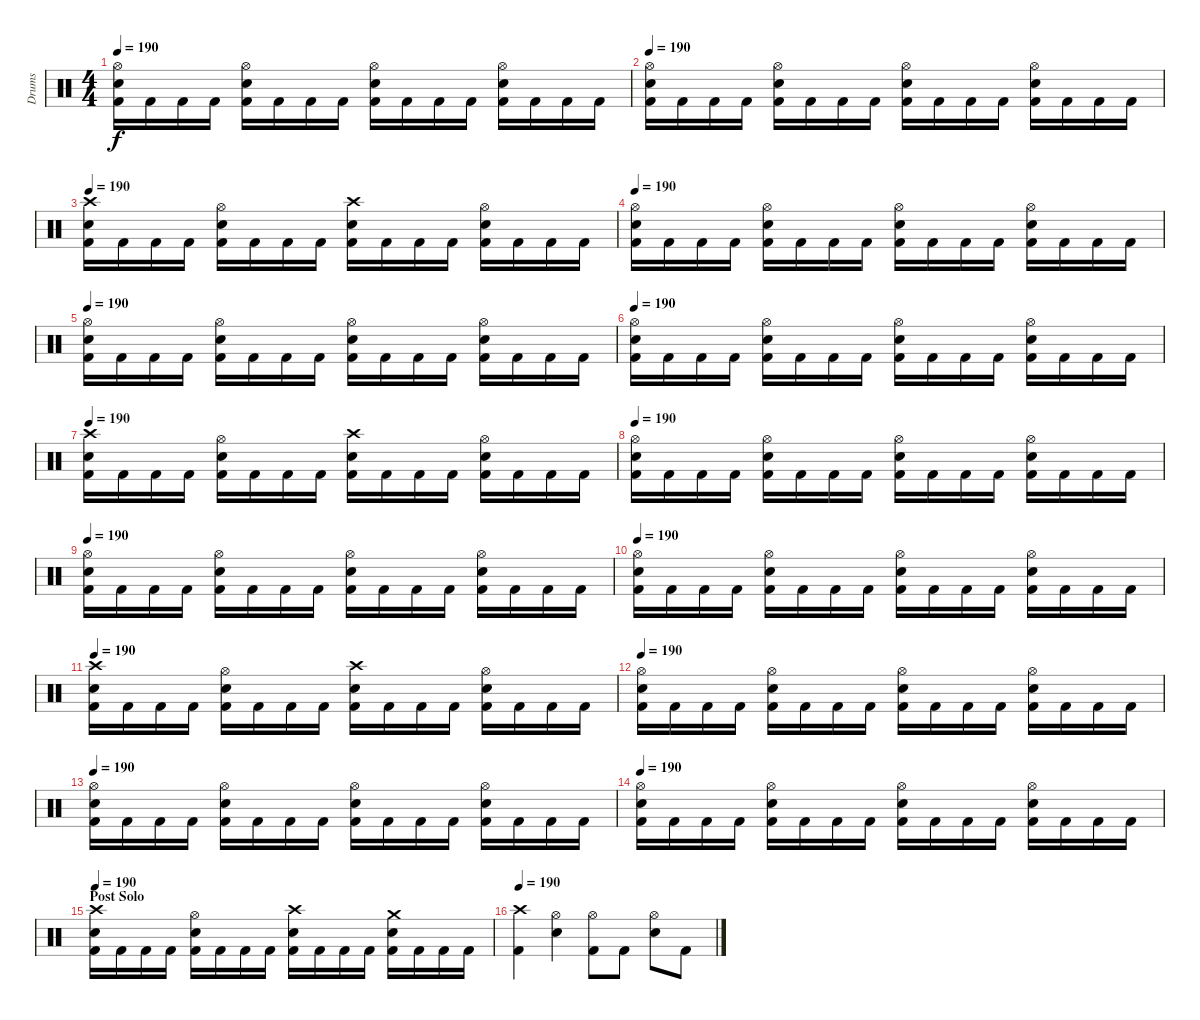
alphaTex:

\track ("Drums" "Drums") {instrument percussion}
\staff {score}
\articulation defaults
\ts (4 4)
\tempo 190
\clef neutral
\ks c
("Hi-Hat (open)" "Electric Snare (hit)" "Kick (hit) 2").16{dy f} "Kick (hit) 2".16 "Kick (hit) 2".16 "Kick (hit) 2".16 ("Hi-Hat (open)" "Electric Snare (hit)" "Kick (hit) 2").16 "Kick (hit) 2".16 "Kick (hit) 2".16 "Kick (hit) 2".16 ("Hi-Hat (open)" "Electric Snare (hit)" "Kick (hit) 2").16 "Kick (hit) 2".16 "Kick (hit) 2".16 "Kick (hit) 2".16 ("Hi-Hat (open)" "Electric Snare (hit)" "Kick (hit) 2").16 "Kick (hit) 2".16 "Kick (hit) 2".16 "Kick (hit) 2".16 |
\tempo 190
("Hi-Hat (open)" "Electric Snare (hit)" "Kick (hit) 2").16 "Kick (hit) 2".16 "Kick (hit) 2".16 "Kick (hit) 2".16 ("Hi-Hat (open)" "Electric Snare (hit)" "Kick (hit) 2").16 "Kick (hit) 2".16 "Kick (hit) 2".16 "Kick (hit) 2".16 ("Hi-Hat (open)" "Electric Snare (hit)" "Kick (hit) 2").16 "Kick (hit) 2".16 "Kick (hit) 2".16 "Kick (hit) 2".16 ("Hi-Hat (open)" "Electric Snare (hit)" "Kick (hit) 2").16 "Kick (hit) 2".16 "Kick (hit) 2".16 "Kick (hit) 2".16 |
\tempo 190
("Crash high (hit)" "Electric Snare (hit)" "Kick (hit) 2").16 "Kick (hit) 2".16 "Kick (hit) 2".16 "Kick (hit) 2".16 ("Hi-Hat (open)" "Electric Snare (hit)" "Kick (hit) 2").16 "Kick (hit) 2".16 "Kick (hit) 2".16 "Kick (hit) 2".16 ("Crash high (hit)" "Electric Snare (hit)" "Kick (hit) 2").16 "Kick (hit) 2".16 "Kick (hit) 2".16 "Kick (hit) 2".16 ("Hi-Hat (open)" "Electric Snare (hit)" "Kick (hit) 2").16 "Kick (hit) 2".16 "Kick (hit) 2".16 "Kick (hit) 2".16 |
\tempo 190
("Hi-Hat (open)" "Electric Snare (hit)" "Kick (hit) 2").16 "Kick (hit) 2".16 "Kick (hit) 2".16 "Kick (hit) 2".16 ("Hi-Hat (open)" "Electric Snare (hit)" "Kick (hit) 2").16 "Kick (hit) 2".16 "Kick (hit) 2".16 "Kick (hit) 2".16 ("Hi-Hat (open)" "Electric Snare (hit)" "Kick (hit) 2").16 "Kick (hit) 2".16 "Kick (hit) 2".16 "Kick (hit) 2".16 ("Hi-Hat (open)" "Electric Snare (hit)" "Kick (hit) 2").16 "Kick (hit) 2".16 "Kick (hit) 2".16 "Kick (hit) 2".16 |
\tempo 190
("Hi-Hat (open)" "Electric Snare (hit)" "Kick (hit) 2").16 "Kick (hit) 2".16 "Kick (hit) 2".16 "Kick (hit) 2".16 ("Hi-Hat (open)" "Electric Snare (hit)" "Kick (hit) 2").16 "Kick (hit) 2".16 "Kick (hit) 2".16 "Kick (hit) 2".16 ("Hi-Hat (open)" "Electric Snare (hit)" "Kick (hit) 2").16 "Kick (hit) 2".16 "Kick (hit) 2".16 "Kick (hit) 2".16 ("Hi-Hat (open)" "Electric Snare (hit)" "Kick (hit) 2").16 "Kick (hit) 2".16 "Kick (hit) 2".16 "Kick (hit) 2".16 |
\tempo 190
("Hi-Hat (open)" "Electric Snare (hit)" "Kick (hit) 2").16 "Kick (hit) 2".16 "Kick (hit) 2".16 "Kick (hit) 2".16 ("Hi-Hat (open)" "Electric Snare (hit)" "Kick (hit) 2").16 "Kick (hit) 2".16 "Kick (hit) 2".16 "Kick (hit) 2".16 ("Hi-Hat (open)" "Electric Snare (hit)" "Kick (hit) 2").16 "Kick (hit) 2".16 "Kick (hit) 2".16 "Kick (hit) 2".16 ("Hi-Hat (open)" "Electric Snare (hit)" "Kick (hit) 2").16 "Kick (hit) 2".16 "Kick (hit) 2".16 "Kick (hit) 2".16 |
\tempo 190
("Crash high (hit)" "Electric Snare (hit)" "Kick (hit) 2").16 "Kick (hit) 2".16 "Kick (hit) 2".16 "Kick (hit) 2".16 ("Hi-Hat (open)" "Electric Snare (hit)" "Kick (hit) 2").16 "Kick (hit) 2".16 "Kick (hit) 2".16 "Kick (hit) 2".16 ("Crash high (hit)" "Electric Snare (hit)" "Kick (hit) 2").16 "Kick (hit) 2".16 "Kick (hit) 2".16 "Kick (hit) 2".16 ("Hi-Hat (open)" "Electric Snare (hit)" "Kick (hit) 2").16 "Kick (hit) 2".16 "Kick (hit) 2".16 "Kick (hit) 2".16 |
\tempo 190
("Hi-Hat (open)" "Electric Snare (hit)" "Kick (hit) 2").16 "Kick (hit) 2".16 "Kick (hit) 2".16 "Kick (hit) 2".16 ("Hi-Hat (open)" "Electric Snare (hit)" "Kick (hit) 2").16 "Kick (hit) 2".16 "Kick (hit) 2".16 "Kick (hit) 2".16 ("Hi-Hat (open)" "Electric Snare (hit)" "Kick (hit) 2").16 "Kick (hit) 2".16 "Kick (hit) 2".16 "Kick (hit) 2".16 ("Hi-Hat (open)" "Electric Snare (hit)" "Kick (hit) 2").16 "Kick (hit) 2".16 "Kick (hit) 2".16 "Kick (hit) 2".16 |
\tempo 190
("Hi-Hat (open)" "Electric Snare (hit)" "Kick (hit) 2").16 "Kick (hit) 2".16 "Kick (hit) 2".16 "Kick (hit) 2".16 ("Hi-Hat (open)" "Electric Snare (hit)" "Kick (hit) 2").16 "Kick (hit) 2".16 "Kick (hit) 2".16 "Kick (hit) 2".16 ("Hi-Hat (open)" "Electric Snare (hit)" "Kick (hit) 2").16 "Kick (hit) 2".16 "Kick (hit) 2".16 "Kick (hit) 2".16 ("Hi-Hat (open)" "Electric Snare (hit)" "Kick (hit) 2").16 "Kick (hit) 2".16 "Kick (hit) 2".16 "Kick (hit) 2".16 |
\tempo 190
("Hi-Hat (open)" "Electric Snare (hit)" "Kick (hit) 2").16 "Kick (hit) 2".16 "Kick (hit) 2".16 "Kick (hit) 2".16 ("Hi-Hat (open)" "Electric Snare (hit)" "Kick (hit) 2").16 "Kick (hit) 2".16 "Kick (hit) 2".16 "Kick (hit) 2".16 ("Hi-Hat (open)" "Electric Snare (hit)" "Kick (hit) 2").16 "Kick (hit) 2".16 "Kick (hit) 2".16 "Kick (hit) 2".16 ("Hi-Hat (open)" "Electric Snare (hit)" "Kick (hit) 2").16 "Kick (hit) 2".16 "Kick (hit) 2".16 "Kick (hit) 2".16 |
\tempo 190
("Crash high (hit)" "Electric Snare (hit)" "Kick (hit) 2").16 "Kick (hit) 2".16 "Kick (hit) 2".16 "Kick (hit) 2".16 ("Hi-Hat (open)" "Electric Snare (hit)" "Kick (hit) 2").16 "Kick (hit) 2".16 "Kick (hit) 2".16 "Kick (hit) 2".16 ("Crash high (hit)" "Electric Snare (hit)" "Kick (hit) 2").16 "Kick (hit) 2".16 "Kick (hit) 2".16 "Kick (hit) 2".16 ("Hi-Hat (open)" "Electric Snare (hit)" "Kick (hit) 2").16 "Kick (hit) 2".16 "Kick (hit) 2".16 "Kick (hit) 2".16 |
\tempo 190
("Hi-Hat (open)" "Electric Snare (hit)" "Kick (hit) 2").16 "Kick (hit) 2".16 "Kick (hit) 2".16 "Kick (hit) 2".16 ("Hi-Hat (open)" "Electric Snare (hit)" "Kick (hit) 2").16 "Kick (hit) 2".16 "Kick (hit) 2".16 "Kick (hit) 2".16 ("Hi-Hat (open)" "Electric Snare (hit)" "Kick (hit) 2").16 "Kick (hit) 2".16 "Kick (hit) 2".16 "Kick (hit) 2".16 ("Hi-Hat (open)" "Electric Snare (hit)" "Kick (hit) 2").16 "Kick (hit) 2".16 "Kick (hit) 2".16 "Kick (hit) 2".16 |
\tempo 190
("Hi-Hat (open)" "Electric Snare (hit)" "Kick (hit) 2").16 "Kick (hit) 2".16 "Kick (hit) 2".16 "Kick (hit) 2".16 ("Hi-Hat (open)" "Electric Snare (hit)" "Kick (hit) 2").16 "Kick (hit) 2".16 "Kick (hit) 2".16 "Kick (hit) 2".16 ("Hi-Hat (open)" "Electric Snare (hit)" "Kick (hit) 2").16 "Kick (hit) 2".16 "Kick (hit) 2".16 "Kick (hit) 2".16 ("Hi-Hat (open)" "Electric Snare (hit)" "Kick (hit) 2").16 "Kick (hit) 2".16 "Kick (hit) 2".16 "Kick (hit) 2".16 |
\tempo 190
("Hi-Hat (open)" "Electric Snare (hit)" "Kick (hit) 2").16 "Kick (hit) 2".16 "Kick (hit) 2".16 "Kick (hit) 2".16 ("Hi-Hat (open)" "Electric Snare (hit)" "Kick (hit) 2").16 "Kick (hit) 2".16 "Kick (hit) 2".16 "Kick (hit) 2".16 ("Hi-Hat (open)" "Electric Snare (hit)" "Kick (hit) 2").16 "Kick (hit) 2".16 "Kick (hit) 2".16 "Kick (hit) 2".16 ("Hi-Hat (open)" "Electric Snare (hit)" "Kick (hit) 2").16 "Kick (hit) 2".16 "Kick (hit) 2".16 "Kick (hit) 2".16 |
\section ("" "Post Solo")
\tempo 190
("Crash high (hit)" "Electric Snare (hit)" "Kick (hit) 2").16 "Kick (hit) 2".16 "Kick (hit) 2".16 "Kick (hit) 2".16 ("Hi-Hat (open)" "Electric Snare (hit)" "Kick (hit) 2").16 "Kick (hit) 2".16 "Kick (hit) 2".16 "Kick (hit) 2".16 ("Crash high (hit)" "Electric Snare (hit)" "Kick (hit) 2").16 "Kick (hit) 2".16 "Kick (hit) 2".16 "Kick (hit) 2".16 ("Crash medium (hit)" "Electric Snare (hit)" "Kick (hit) 2").16 "Kick (hit) 2".16 "Kick (hit) 2".16 "Kick (hit) 2".16 |
\tempo 190
("Crash high (hit)" "Kick (hit) 2").4 ("Hi-Hat (open)" "Electric Snare (hit)").4 ("Hi-Hat (open)" "Kick (hit) 2").8 "Kick (hit) 2".8 ("Hi-Hat (open)" "Electric Snare (hit)").8 "Kick (hit) 2".8
